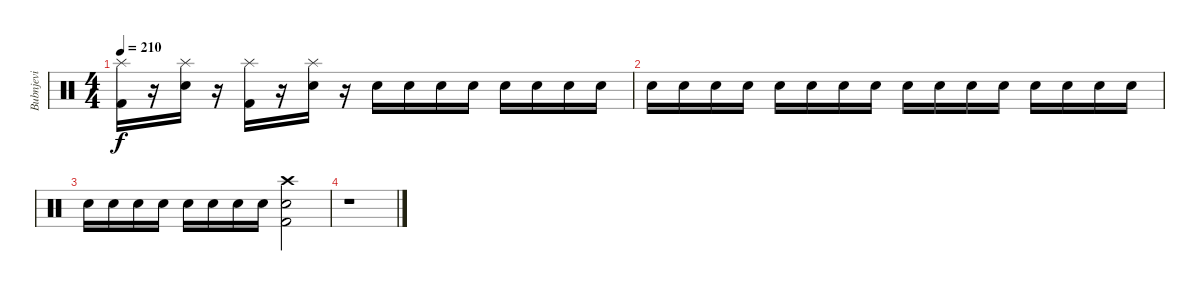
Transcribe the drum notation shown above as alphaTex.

\track ("Bubnjevi" "Bubnjevi") {instrument percussion}
\staff {score}
\articulation defaults
\ts (4 4)
\tempo 210
\clef neutral
\ks c
("Splash (hit)" "Kick (hit) 2").16{dy f} r.16 ("Splash (hit)" "Snare (hit) 2").16 r.16 ("Splash (hit)" "Kick (hit) 2").16 r.16 ("Splash (hit)" "Snare (hit) 2").16 r.16 "Snare (hit) 2".16 "Snare (hit) 2".16 "Snare (hit) 2".16 "Snare (hit) 2".16 "Snare (hit) 2".16 "Snare (hit) 2".16 "Snare (hit) 2".16 "Snare (hit) 2".16 |
"Snare (hit) 2".16 "Snare (hit) 2".16 "Snare (hit) 2".16 "Snare (hit) 2".16 "Snare (hit) 2".16 "Snare (hit) 2".16 "Snare (hit) 2".16 "Snare (hit) 2".16 "Snare (hit) 2".16 "Snare (hit) 2".16 "Snare (hit) 2".16 "Snare (hit) 2".16 "Snare (hit) 2".16 "Snare (hit) 2".16 "Snare (hit) 2".16 "Snare (hit) 2".16 |
"Snare (hit) 2".16 "Snare (hit) 2".16 "Snare (hit) 2".16 "Snare (hit) 2".16 "Snare (hit) 2".16 "Snare (hit) 2".16 "Snare (hit) 2".16 "Snare (hit) 2".16 ("Kick (hit) 2" "Snare (hit) 2" "Crash high (hit)").2 |
r.1
